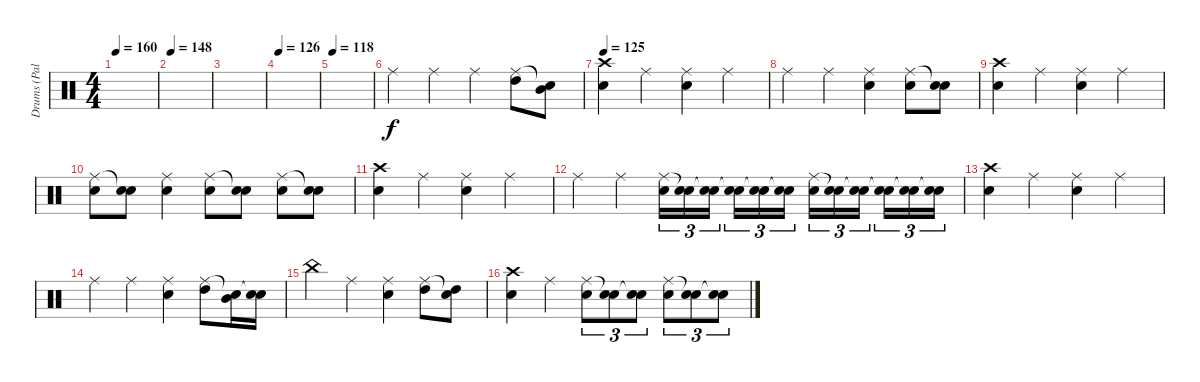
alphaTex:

\track ("Drums (Palmer)" "Drums (Pal") {instrument percussion}
\staff {score}
\articulation defaults
\ts (4 4)
\tempo 160
\clef neutral
\ks c
|
\tempo 148
|
|
\tempo 126
|
\tempo 118
|
"Ride (middle)".4 "Ride (middle)".4 "Ride (middle)".4 ("Ride (middle)" "High Tom (hit)").8 ("Snare (hit)"{t} "Mid Tom (hit)").8 |
\tempo 125
("Crash high (hit)" "Snare (hit) 2").4 "Ride (middle)".4 ("Ride (middle)" "Snare (hit) 2").4 "Ride (middle)".4 |
"Ride (middle)".4 "Ride (middle)".4 ("Ride (middle)" "Snare (hit) 2").4 ("Ride (middle)" "Snare (hit) 2").8 ("Snare (hit)"{t} "Snare (hit) 2").8 |
("Crash high (hit)" "Snare (hit) 2").4 "Ride (middle)".4 ("Ride (middle)" "Snare (hit) 2").4 "Ride (middle)".4 |
("Ride (middle)" "Snare (hit) 2").8 ("Snare (hit)"{t} "Snare (hit) 2").8 ("Ride (middle)" "Snare (hit) 2").4 ("Ride (middle)" "Snare (hit) 2").8 ("Snare (hit)"{t} "Snare (hit) 2").8 ("Ride (middle)" "Snare (hit) 2").8 ("Snare (hit)"{t} "Snare (hit) 2").8 |
("Crash high (hit)" "Snare (hit) 2").4 "Ride (middle)".4 ("Ride (middle)" "Snare (hit) 2").4 "Ride (middle)".4 |
"Ride (middle)".4 "Ride (middle)".4 ("Ride (middle)" "Snare (hit) 2").16{tu (3 2)} ("Snare (hit)"{t} "Snare (hit) 2").16{tu (3 2)} ("Snare (hit)"{t} "Snare (hit) 2").16{tu (3 2)} ("Snare (hit)"{t} "Snare (hit) 2").16{tu (3 2)} ("Snare (hit)"{t} "Snare (hit) 2").16{tu (3 2)} ("Snare (hit)"{t} "Snare (hit) 2").16{tu (3 2)} ("Ride (middle)" "Snare (hit) 2").16{tu (3 2)} ("Snare (hit)"{t} "Snare (hit) 2").16{tu (3 2)} ("Snare (hit)"{t} "Snare (hit) 2").16{tu (3 2)} ("Snare (hit)"{t} "Snare (hit) 2").16{tu (3 2)} ("Snare (hit)"{t} "Snare (hit) 2").16{tu (3 2)} ("Snare (hit)"{t} "Snare (hit) 2").16{tu (3 2)} |
("Crash high (hit)" "Snare (hit) 2").4 "Ride (middle)".4 ("Ride (middle)" "Snare (hit) 2").4 "Ride (middle)".4 |
"Ride (middle)".4 "Ride (middle)".4 ("Ride (middle)" "Snare (hit) 2").4 ("Ride (middle)" "High Tom (hit)").8 ("Snare (hit)"{t} "Mid Tom (hit)").16 ("Snare (hit)"{t} "Snare (hit) 2").16 |
"China (hit)".4 "Ride (middle)".4 ("Ride (middle)" "Snare (hit) 2").4 ("Ride (middle)" "High Tom (hit)").8 ("Snare (hit)"{t} "High Tom (hit)").8 |
("Crash high (hit)" "Snare (hit) 2").4 "Ride (middle)".4 ("Ride (middle)" "Snare (hit) 2").8{tu (3 2)} ("Snare (hit)"{t} "Snare (hit) 2").8{tu (3 2)} ("Snare (hit)"{t} "Snare (hit) 2").8{tu (3 2)} ("Ride (middle)" "Snare (hit) 2").8{tu (3 2)} ("Snare (hit)"{t} "Snare (hit) 2").8{tu (3 2)} ("Snare (hit)"{t} "Snare (hit) 2").8{tu (3 2)}
